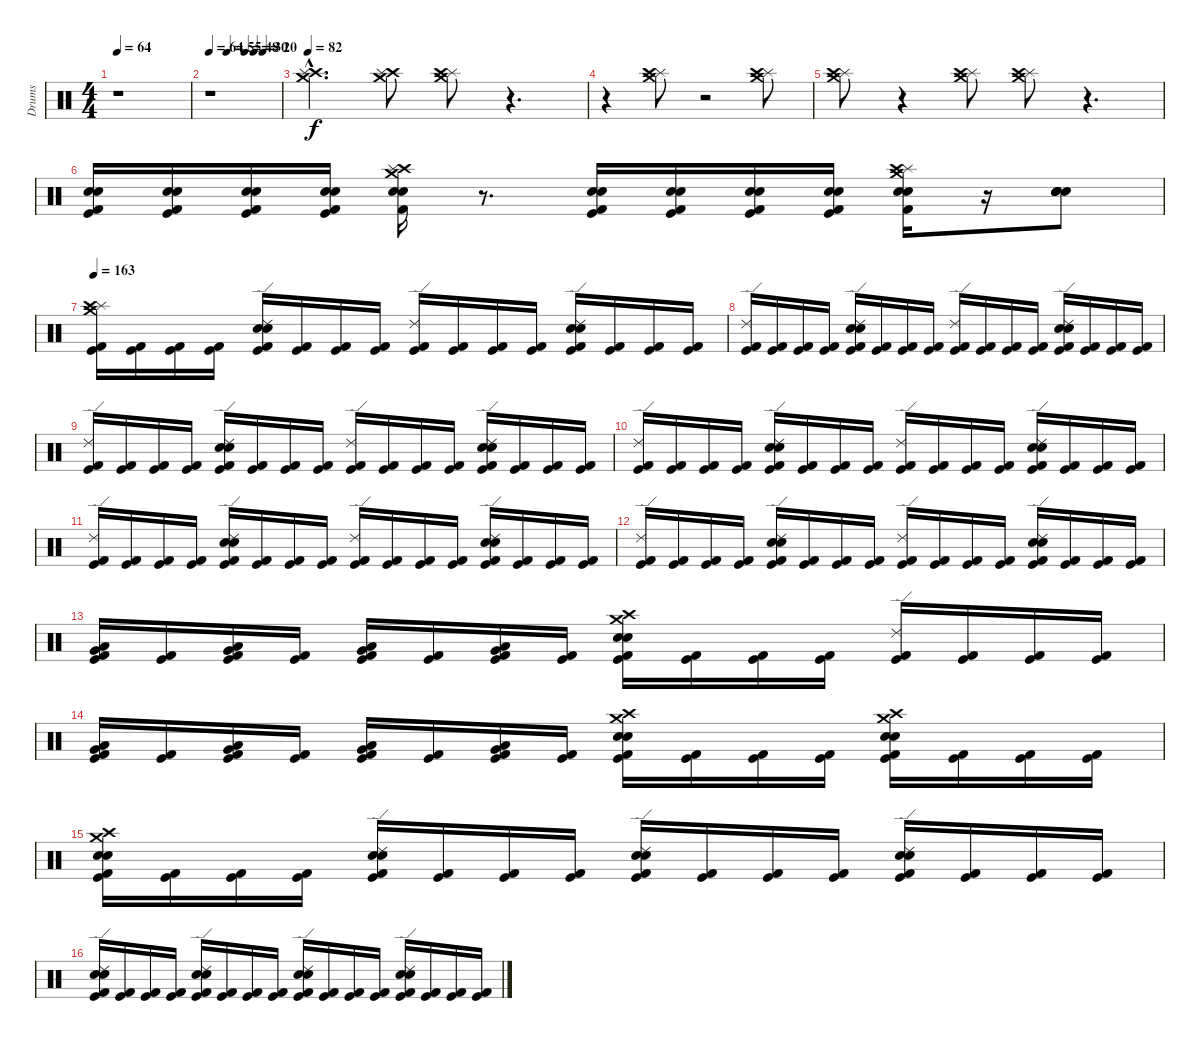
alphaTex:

\track ("Drums" "Drums") {instrument percussion}
\staff {score}
\articulation defaults
\ts (4 4)
\tempo 64
\clef neutral
\ks c
r.1{dy f} |
\tempo 69
\tempo 64
\tempo (55 0.25)
\tempo (48 0.5)
\tempo (30 0.625)
\tempo (20 0.75)
r.1 |
\tempo 82
("Crash high (hit)"{hac} "Splash (hit)"{hac} "Crash medium (hit)"{hac}).4{d} ("Crash high (hit)" "Crash medium (hit)" "Splash (hit)").8 ("Splash (hit)" "Crash high (hit)" "Crash medium (hit)").8 r.4{d} |
r.4 ("Crash medium (hit)" "Splash (hit)" "Crash high (hit)").8 r.2 ("Crash medium (hit)" "Splash (hit)" "Crash high (hit)").8 |
("Crash medium (hit)" "Splash (hit)" "Crash high (hit)").8 r.4 ("Crash medium (hit)" "Splash (hit)" "Crash high (hit)").8 ("Splash (hit)" "Crash medium (hit)" "Crash high (hit)").8 r.4{d} |
("Snare (hit) 2" "Electric Snare (hit)" "Kick (hit) 2" "Kick (hit)").16 ("Electric Snare (hit)" "Snare (hit) 2" "Kick (hit) 2" "Kick (hit)").16 ("Electric Snare (hit)" "Snare (hit) 2" "Kick (hit) 2" "Kick (hit)").16 ("Electric Snare (hit)" "Snare (hit) 2" "Kick (hit) 2" "Kick (hit)").16 ("Crash high (hit)" "Splash (hit)" "Crash medium (hit)" "Electric Snare (hit)" "Snare (hit) 2" "Kick (hit) 2").16 r.8{d} ("Electric Snare (hit)" "Snare (hit) 2" "Kick (hit) 2" "Kick (hit)").16 ("Electric Snare (hit)" "Snare (hit) 2" "Kick (hit) 2" "Kick (hit)").16 ("Electric Snare (hit)" "Snare (hit) 2" "Kick (hit)" "Kick (hit) 2").16 ("Electric Snare (hit)" "Snare (hit) 2" "Kick (hit) 2" "Kick (hit)").16 ("Crash medium (hit)" "Splash (hit)" "Crash high (hit)" "Electric Snare (hit)" "Snare (hit) 2" "Kick (hit) 2").16 r.16 ("Electric Snare (hit)" "Snare (hit) 2" "Electric Snare (hit)" "Snare (hit) 2").8 |
\tempo 163
("Splash (hit)" "Crash high (hit)" "Crash medium (hit)" "Kick (hit) 2" "Kick (hit)").16 ("Kick (hit) 2" "Kick (hit)").16 ("Kick (hit) 2" "Kick (hit)").16 ("Kick (hit) 2" "Kick (hit)").16 ("Snare (hit) 2" "Electric Snare (hit)" "Ride (edge) 2" "Kick (hit) 2" "Kick (hit)").16 ("Kick (hit) 2" "Kick (hit)").16 ("Kick (hit) 2" "Kick (hit)").16 ("Kick (hit) 2" "Kick (hit)").16 ("Ride (edge) 2" "Kick (hit) 2" "Kick (hit)").16 ("Kick (hit) 2" "Kick (hit)").16 ("Kick (hit) 2" "Kick (hit)").16 ("Kick (hit) 2" "Kick (hit)").16 ("Electric Snare (hit)" "Snare (hit) 2" "Ride (edge) 2" "Kick (hit) 2" "Kick (hit)").16 ("Kick (hit) 2" "Kick (hit)").16 ("Kick (hit) 2" "Kick (hit)").16 ("Kick (hit) 2" "Kick (hit)").16 |
("Ride (edge) 2" "Kick (hit) 2" "Kick (hit)").16 ("Kick (hit) 2" "Kick (hit)").16 ("Kick (hit) 2" "Kick (hit)").16 ("Kick (hit) 2" "Kick (hit)").16 ("Snare (hit) 2" "Electric Snare (hit)" "Ride (edge) 2" "Kick (hit) 2" "Kick (hit)").16 ("Kick (hit) 2" "Kick (hit)").16 ("Kick (hit) 2" "Kick (hit)").16 ("Kick (hit) 2" "Kick (hit)").16 ("Ride (edge) 2" "Kick (hit) 2" "Kick (hit)").16 ("Kick (hit) 2" "Kick (hit)").16 ("Kick (hit) 2" "Kick (hit)").16 ("Kick (hit) 2" "Kick (hit)").16 ("Electric Snare (hit)" "Snare (hit) 2" "Ride (edge) 2" "Kick (hit) 2" "Kick (hit)").16 ("Kick (hit) 2" "Kick (hit)").16 ("Kick (hit) 2" "Kick (hit)").16 ("Kick (hit) 2" "Kick (hit)").16 |
("Ride (edge) 2" "Kick (hit) 2" "Kick (hit)").16 ("Kick (hit) 2" "Kick (hit)").16 ("Kick (hit) 2" "Kick (hit)").16 ("Kick (hit) 2" "Kick (hit)").16 ("Snare (hit) 2" "Electric Snare (hit)" "Ride (edge) 2" "Kick (hit) 2" "Kick (hit)").16 ("Kick (hit) 2" "Kick (hit)").16 ("Kick (hit) 2" "Kick (hit)").16 ("Kick (hit) 2" "Kick (hit)").16 ("Ride (edge) 2" "Kick (hit) 2" "Kick (hit)").16 ("Kick (hit) 2" "Kick (hit)").16 ("Kick (hit) 2" "Kick (hit)").16 ("Kick (hit) 2" "Kick (hit)").16 ("Electric Snare (hit)" "Snare (hit) 2" "Ride (edge) 2" "Kick (hit) 2" "Kick (hit)").16 ("Kick (hit) 2" "Kick (hit)").16 ("Kick (hit) 2" "Kick (hit)").16 ("Kick (hit) 2" "Kick (hit)").16 |
("Ride (edge) 2" "Kick (hit) 2" "Kick (hit)").16 ("Kick (hit) 2" "Kick (hit)").16 ("Kick (hit) 2" "Kick (hit)").16 ("Kick (hit) 2" "Kick (hit)").16 ("Snare (hit) 2" "Electric Snare (hit)" "Ride (edge) 2" "Kick (hit) 2" "Kick (hit)").16 ("Kick (hit) 2" "Kick (hit)").16 ("Kick (hit) 2" "Kick (hit)").16 ("Kick (hit) 2" "Kick (hit)").16 ("Ride (edge) 2" "Kick (hit) 2" "Kick (hit)").16 ("Kick (hit) 2" "Kick (hit)").16 ("Kick (hit) 2" "Kick (hit)").16 ("Kick (hit) 2" "Kick (hit)").16 ("Electric Snare (hit)" "Snare (hit) 2" "Ride (edge) 2" "Kick (hit) 2" "Kick (hit)").16 ("Kick (hit) 2" "Kick (hit)").16 ("Kick (hit) 2" "Kick (hit)").16 ("Kick (hit) 2" "Kick (hit)").16 |
("Ride (edge) 2" "Kick (hit) 2" "Kick (hit)").16 ("Kick (hit) 2" "Kick (hit)").16 ("Kick (hit) 2" "Kick (hit)").16 ("Kick (hit) 2" "Kick (hit)").16 ("Snare (hit) 2" "Electric Snare (hit)" "Ride (edge) 2" "Kick (hit) 2" "Kick (hit)").16 ("Kick (hit) 2" "Kick (hit)").16 ("Kick (hit) 2" "Kick (hit)").16 ("Kick (hit) 2" "Kick (hit)").16 ("Ride (edge) 2" "Kick (hit) 2" "Kick (hit)").16 ("Kick (hit) 2" "Kick (hit)").16 ("Kick (hit) 2" "Kick (hit)").16 ("Kick (hit) 2" "Kick (hit)").16 ("Electric Snare (hit)" "Snare (hit) 2" "Ride (edge) 2" "Kick (hit) 2" "Kick (hit)").16 ("Kick (hit) 2" "Kick (hit)").16 ("Kick (hit) 2" "Kick (hit)").16 ("Kick (hit) 2" "Kick (hit)").16 |
("Ride (edge) 2" "Kick (hit) 2" "Kick (hit)").16 ("Kick (hit) 2" "Kick (hit)").16 ("Kick (hit) 2" "Kick (hit)").16 ("Kick (hit) 2" "Kick (hit)").16 ("Snare (hit) 2" "Electric Snare (hit)" "Ride (edge) 2" "Kick (hit) 2" "Kick (hit)").16 ("Kick (hit) 2" "Kick (hit)").16 ("Kick (hit) 2" "Kick (hit)").16 ("Kick (hit) 2" "Kick (hit)").16 ("Ride (edge) 2" "Kick (hit) 2" "Kick (hit)").16 ("Kick (hit) 2" "Kick (hit)").16 ("Kick (hit) 2" "Kick (hit)").16 ("Kick (hit) 2" "Kick (hit)").16 ("Electric Snare (hit)" "Snare (hit) 2" "Ride (edge) 2" "Kick (hit) 2" "Kick (hit)").16 ("Kick (hit) 2" "Kick (hit)").16 ("Kick (hit) 2" "Kick (hit)").16 ("Kick (hit) 2" "Kick (hit)").16 |
("Very Low Tom (hit)" "Low Floor Tom (hit)" "Kick (hit) 2" "Kick (hit)").16 ("Kick (hit) 2" "Kick (hit)").16 ("Very Low Tom (hit)" "Low Floor Tom (hit)" "Kick (hit) 2" "Kick (hit)").16 ("Kick (hit) 2" "Kick (hit)").16 ("Very Low Tom (hit)" "Low Floor Tom (hit)" "Kick (hit) 2" "Kick (hit)").16 ("Kick (hit) 2" "Kick (hit)").16 ("Very Low Tom (hit)" "Low Floor Tom (hit)" "Kick (hit) 2" "Kick (hit)").16 ("Kick (hit) 2" "Kick (hit)").16 ("Electric Snare (hit)" "Snare (hit) 2" "Crash medium (hit)" "Crash high (hit)" "Kick (hit) 2" "Kick (hit)").16 ("Kick (hit) 2" "Kick (hit)").16 ("Kick (hit) 2" "Kick (hit)").16 ("Kick (hit) 2" "Kick (hit)").16 ("Ride (edge) 2" "Kick (hit) 2" "Kick (hit)").16 ("Kick (hit) 2" "Kick (hit)").16 ("Kick (hit) 2" "Kick (hit)").16 ("Kick (hit) 2" "Kick (hit)").16 |
("Very Low Tom (hit)" "Low Floor Tom (hit)" "Kick (hit) 2" "Kick (hit)").16 ("Kick (hit) 2" "Kick (hit)").16 ("Very Low Tom (hit)" "Low Floor Tom (hit)" "Kick (hit) 2" "Kick (hit)").16 ("Kick (hit) 2" "Kick (hit)").16 ("Very Low Tom (hit)" "Low Floor Tom (hit)" "Kick (hit) 2" "Kick (hit)").16 ("Kick (hit) 2" "Kick (hit)").16 ("Very Low Tom (hit)" "Low Floor Tom (hit)" "Kick (hit) 2" "Kick (hit)").16 ("Kick (hit) 2" "Kick (hit)").16 ("Electric Snare (hit)" "Snare (hit) 2" "Crash medium (hit)" "Crash high (hit)" "Kick (hit) 2" "Kick (hit)").16 ("Kick (hit) 2" "Kick (hit)").16 ("Kick (hit) 2" "Kick (hit)").16 ("Kick (hit) 2" "Kick (hit)").16 ("Crash high (hit)" "Electric Snare (hit)" "Snare (hit) 2" "Crash medium (hit)" "Kick (hit) 2" "Kick (hit)").16 ("Kick (hit) 2" "Kick (hit)").16 ("Kick (hit) 2" "Kick (hit)").16 ("Kick (hit) 2" "Kick (hit)").16 |
("Crash high (hit)" "Crash medium (hit)" "Electric Snare (hit)" "Snare (hit) 2" "Kick (hit) 2" "Kick (hit)").16 ("Kick (hit) 2" "Kick (hit)").16 ("Kick (hit) 2" "Kick (hit)").16 ("Kick (hit) 2" "Kick (hit)").16 ("Ride (edge) 2" "Electric Snare (hit)" "Snare (hit) 2" "Kick (hit) 2" "Kick (hit)").16 ("Kick (hit) 2" "Kick (hit)").16 ("Kick (hit) 2" "Kick (hit)").16 ("Kick (hit) 2" "Kick (hit)").16 ("Ride (edge) 2" "Electric Snare (hit)" "Snare (hit) 2" "Kick (hit) 2" "Kick (hit)").16 ("Kick (hit) 2" "Kick (hit)").16 ("Kick (hit) 2" "Kick (hit)").16 ("Kick (hit) 2" "Kick (hit)").16 ("Electric Snare (hit)" "Snare (hit) 2" "Ride (edge) 2" "Kick (hit) 2" "Kick (hit)").16 ("Kick (hit) 2" "Kick (hit)").16 ("Kick (hit) 2" "Kick (hit)").16 ("Kick (hit) 2" "Kick (hit)").16 |
("Ride (edge) 2" "Electric Snare (hit)" "Snare (hit) 2" "Kick (hit) 2" "Kick (hit)").16 ("Kick (hit) 2" "Kick (hit)").16 ("Kick (hit) 2" "Kick (hit)").16 ("Kick (hit) 2" "Kick (hit)").16 ("Ride (edge) 2" "Electric Snare (hit)" "Snare (hit) 2" "Kick (hit) 2" "Kick (hit)").16 ("Kick (hit) 2" "Kick (hit)").16 ("Kick (hit) 2" "Kick (hit)").16 ("Kick (hit) 2" "Kick (hit)").16 ("Ride (edge) 2" "Electric Snare (hit)" "Snare (hit) 2" "Kick (hit) 2" "Kick (hit)").16 ("Kick (hit) 2" "Kick (hit)").16 ("Kick (hit) 2" "Kick (hit)").16 ("Kick (hit) 2" "Kick (hit)").16 ("Electric Snare (hit)" "Snare (hit) 2" "Ride (edge) 2" "Kick (hit) 2" "Kick (hit)").16 ("Kick (hit) 2" "Kick (hit)").16 ("Kick (hit) 2" "Kick (hit)").16 ("Kick (hit) 2" "Kick (hit)").16
